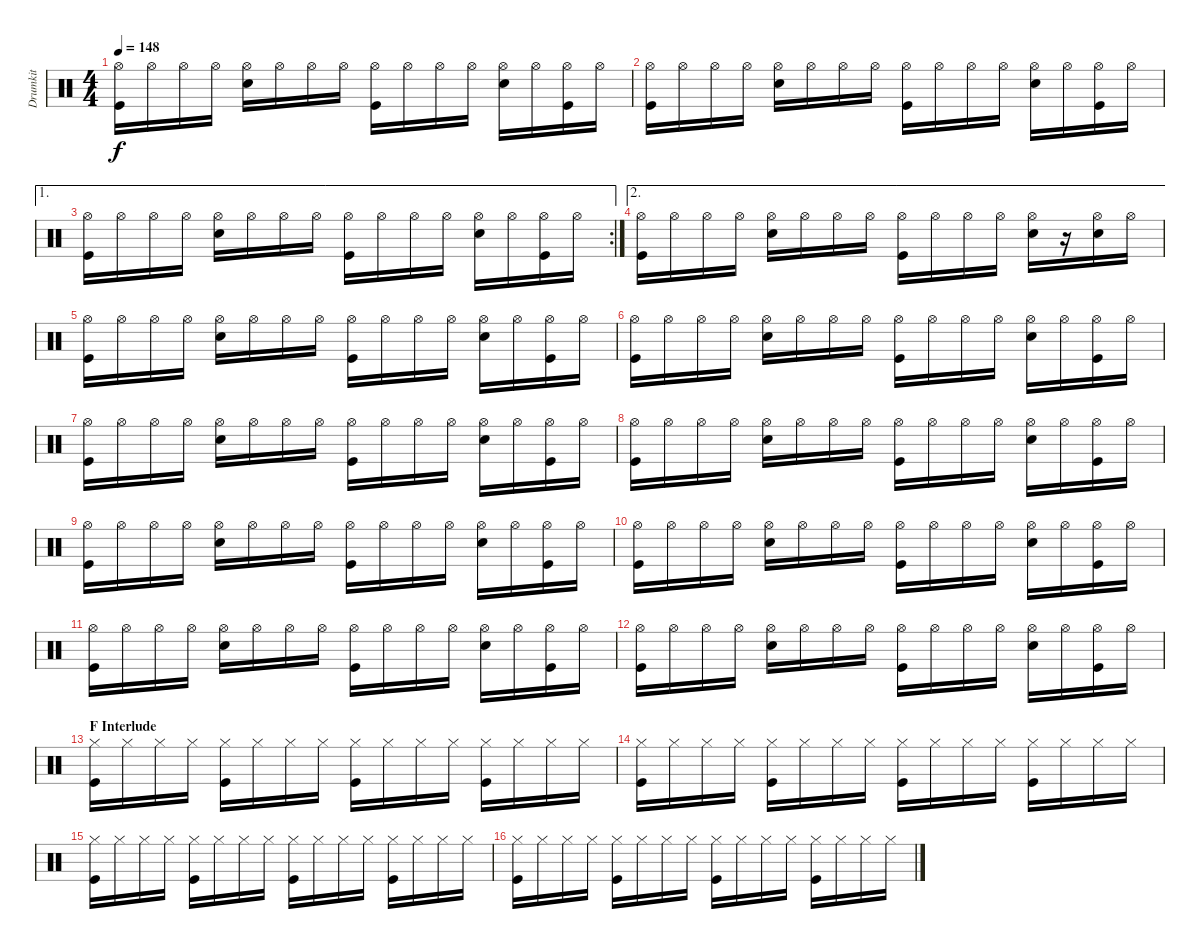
\track ("Drumkit" "Drumkit") {instrument percussion}
\staff {score}
\articulation defaults
\ts (4 4)
\tempo 148
\clef neutral
\ks c
("Hi-Hat (open)" "Kick (hit)").16{dy f} "Hi-Hat (open)".16 "Hi-Hat (open)".16 "Hi-Hat (open)".16 ("Hi-Hat (open)" "Snare (hit) 2").16 "Hi-Hat (open)".16 "Hi-Hat (open)".16 "Hi-Hat (open)".16 ("Hi-Hat (open)" "Kick (hit)").16 "Hi-Hat (open)".16 "Hi-Hat (open)".16 "Hi-Hat (open)".16 ("Hi-Hat (open)" "Snare (hit) 2").16 "Hi-Hat (open)".16 ("Hi-Hat (open)" "Kick (hit)").16 "Hi-Hat (open)".16 |
("Hi-Hat (open)" "Kick (hit)").16 "Hi-Hat (open)".16 "Hi-Hat (open)".16 "Hi-Hat (open)".16 ("Hi-Hat (open)" "Snare (hit) 2").16 "Hi-Hat (open)".16 "Hi-Hat (open)".16 "Hi-Hat (open)".16 ("Hi-Hat (open)" "Kick (hit)").16 "Hi-Hat (open)".16 "Hi-Hat (open)".16 "Hi-Hat (open)".16 ("Hi-Hat (open)" "Snare (hit) 2").16 "Hi-Hat (open)".16 ("Hi-Hat (open)" "Kick (hit)").16 "Hi-Hat (open)".16 |
\ae 1
\rc 2
("Hi-Hat (open)" "Kick (hit)").16 "Hi-Hat (open)".16 "Hi-Hat (open)".16 "Hi-Hat (open)".16 ("Hi-Hat (open)" "Snare (hit) 2").16 "Hi-Hat (open)".16 "Hi-Hat (open)".16 "Hi-Hat (open)".16 ("Hi-Hat (open)" "Kick (hit)").16 "Hi-Hat (open)".16 "Hi-Hat (open)".16 "Hi-Hat (open)".16 ("Hi-Hat (open)" "Snare (hit) 2").16 "Hi-Hat (open)".16 ("Hi-Hat (open)" "Kick (hit)").16 "Hi-Hat (open)".16 |
\ae 2
("Hi-Hat (open)" "Kick (hit)").16 "Hi-Hat (open)".16 "Hi-Hat (open)".16 "Hi-Hat (open)".16 ("Hi-Hat (open)" "Snare (hit) 2").16 "Hi-Hat (open)".16 "Hi-Hat (open)".16 "Hi-Hat (open)".16 ("Hi-Hat (open)" "Kick (hit)").16 "Hi-Hat (open)".16 "Hi-Hat (open)".16 "Hi-Hat (open)".16 ("Hi-Hat (open)" "Snare (hit) 2").16 r.16 ("Hi-Hat (open)" "Snare (hit) 2").16 "Hi-Hat (open)".16 |
("Hi-Hat (open)" "Kick (hit)").16 "Hi-Hat (open)".16 "Hi-Hat (open)".16 "Hi-Hat (open)".16 ("Hi-Hat (open)" "Snare (hit) 2").16 "Hi-Hat (open)".16 "Hi-Hat (open)".16 "Hi-Hat (open)".16 ("Hi-Hat (open)" "Kick (hit)").16 "Hi-Hat (open)".16 "Hi-Hat (open)".16 "Hi-Hat (open)".16 ("Hi-Hat (open)" "Snare (hit) 2").16 "Hi-Hat (open)".16 ("Hi-Hat (open)" "Kick (hit)").16 "Hi-Hat (open)".16 |
("Hi-Hat (open)" "Kick (hit)").16 "Hi-Hat (open)".16 "Hi-Hat (open)".16 "Hi-Hat (open)".16 ("Hi-Hat (open)" "Snare (hit) 2").16 "Hi-Hat (open)".16 "Hi-Hat (open)".16 "Hi-Hat (open)".16 ("Hi-Hat (open)" "Kick (hit)").16 "Hi-Hat (open)".16 "Hi-Hat (open)".16 "Hi-Hat (open)".16 ("Hi-Hat (open)" "Snare (hit) 2").16 "Hi-Hat (open)".16 ("Hi-Hat (open)" "Kick (hit)").16 "Hi-Hat (open)".16 |
("Hi-Hat (open)" "Kick (hit)").16 "Hi-Hat (open)".16 "Hi-Hat (open)".16 "Hi-Hat (open)".16 ("Hi-Hat (open)" "Snare (hit) 2").16 "Hi-Hat (open)".16 "Hi-Hat (open)".16 "Hi-Hat (open)".16 ("Hi-Hat (open)" "Kick (hit)").16 "Hi-Hat (open)".16 "Hi-Hat (open)".16 "Hi-Hat (open)".16 ("Hi-Hat (open)" "Snare (hit) 2").16 "Hi-Hat (open)".16 ("Hi-Hat (open)" "Kick (hit)").16 "Hi-Hat (open)".16 |
("Hi-Hat (open)" "Kick (hit)").16 "Hi-Hat (open)".16 "Hi-Hat (open)".16 "Hi-Hat (open)".16 ("Hi-Hat (open)" "Snare (hit) 2").16 "Hi-Hat (open)".16 "Hi-Hat (open)".16 "Hi-Hat (open)".16 ("Hi-Hat (open)" "Kick (hit)").16 "Hi-Hat (open)".16 "Hi-Hat (open)".16 "Hi-Hat (open)".16 ("Hi-Hat (open)" "Snare (hit) 2").16 "Hi-Hat (open)".16 ("Hi-Hat (open)" "Kick (hit)").16 "Hi-Hat (open)".16 |
("Hi-Hat (open)" "Kick (hit)").16 "Hi-Hat (open)".16 "Hi-Hat (open)".16 "Hi-Hat (open)".16 ("Hi-Hat (open)" "Snare (hit) 2").16 "Hi-Hat (open)".16 "Hi-Hat (open)".16 "Hi-Hat (open)".16 ("Hi-Hat (open)" "Kick (hit)").16 "Hi-Hat (open)".16 "Hi-Hat (open)".16 "Hi-Hat (open)".16 ("Hi-Hat (open)" "Snare (hit) 2").16 "Hi-Hat (open)".16 ("Hi-Hat (open)" "Kick (hit)").16 "Hi-Hat (open)".16 |
("Hi-Hat (open)" "Kick (hit)").16 "Hi-Hat (open)".16 "Hi-Hat (open)".16 "Hi-Hat (open)".16 ("Hi-Hat (open)" "Snare (hit) 2").16 "Hi-Hat (open)".16 "Hi-Hat (open)".16 "Hi-Hat (open)".16 ("Hi-Hat (open)" "Kick (hit)").16 "Hi-Hat (open)".16 "Hi-Hat (open)".16 "Hi-Hat (open)".16 ("Hi-Hat (open)" "Snare (hit) 2").16 "Hi-Hat (open)".16 ("Hi-Hat (open)" "Kick (hit)").16 "Hi-Hat (open)".16 |
("Hi-Hat (open)" "Kick (hit)").16 "Hi-Hat (open)".16 "Hi-Hat (open)".16 "Hi-Hat (open)".16 ("Hi-Hat (open)" "Snare (hit) 2").16 "Hi-Hat (open)".16 "Hi-Hat (open)".16 "Hi-Hat (open)".16 ("Hi-Hat (open)" "Kick (hit)").16 "Hi-Hat (open)".16 "Hi-Hat (open)".16 "Hi-Hat (open)".16 ("Hi-Hat (open)" "Snare (hit) 2").16 "Hi-Hat (open)".16 ("Hi-Hat (open)" "Kick (hit)").16 "Hi-Hat (open)".16 |
("Hi-Hat (open)" "Kick (hit)").16 "Hi-Hat (open)".16 "Hi-Hat (open)".16 "Hi-Hat (open)".16 ("Hi-Hat (open)" "Snare (hit) 2").16 "Hi-Hat (open)".16 "Hi-Hat (open)".16 "Hi-Hat (open)".16 ("Hi-Hat (open)" "Kick (hit)").16 "Hi-Hat (open)".16 "Hi-Hat (open)".16 "Hi-Hat (open)".16 ("Hi-Hat (open)" "Snare (hit) 2").16 "Hi-Hat (open)".16 ("Hi-Hat (open)" "Kick (hit)").16 "Hi-Hat (open)".16 |
\section ("" "F Interlude")
("Hi-Hat (closed)" "Kick (hit)").16 "Hi-Hat (closed)".16 "Hi-Hat (closed)".16 "Hi-Hat (closed)".16 ("Hi-Hat (closed)" "Kick (hit)").16 "Hi-Hat (closed)".16 "Hi-Hat (closed)".16 "Hi-Hat (closed)".16 ("Hi-Hat (closed)" "Kick (hit)").16 "Hi-Hat (closed)".16 "Hi-Hat (closed)".16 "Hi-Hat (closed)".16 ("Hi-Hat (closed)" "Kick (hit)").16 "Hi-Hat (closed)".16 "Hi-Hat (closed)".16 "Hi-Hat (closed)".16 |
("Hi-Hat (closed)" "Kick (hit)").16 "Hi-Hat (closed)".16 "Hi-Hat (closed)".16 "Hi-Hat (closed)".16 ("Hi-Hat (closed)" "Kick (hit)").16 "Hi-Hat (closed)".16 "Hi-Hat (closed)".16 "Hi-Hat (closed)".16 ("Hi-Hat (closed)" "Kick (hit)").16 "Hi-Hat (closed)".16 "Hi-Hat (closed)".16 "Hi-Hat (closed)".16 ("Hi-Hat (closed)" "Kick (hit)").16 "Hi-Hat (closed)".16 "Hi-Hat (closed)".16 "Hi-Hat (closed)".16 |
("Hi-Hat (closed)" "Kick (hit)").16 "Hi-Hat (closed)".16 "Hi-Hat (closed)".16 "Hi-Hat (closed)".16 ("Hi-Hat (closed)" "Kick (hit)").16 "Hi-Hat (closed)".16 "Hi-Hat (closed)".16 "Hi-Hat (closed)".16 ("Hi-Hat (closed)" "Kick (hit)").16 "Hi-Hat (closed)".16 "Hi-Hat (closed)".16 "Hi-Hat (closed)".16 ("Hi-Hat (closed)" "Kick (hit)").16 "Hi-Hat (closed)".16 "Hi-Hat (closed)".16 "Hi-Hat (closed)".16 |
("Hi-Hat (closed)" "Kick (hit)").16 "Hi-Hat (closed)".16 "Hi-Hat (closed)".16 "Hi-Hat (closed)".16 ("Hi-Hat (closed)" "Kick (hit)").16 "Hi-Hat (closed)".16 "Hi-Hat (closed)".16 "Hi-Hat (closed)".16 ("Hi-Hat (closed)" "Kick (hit)").16 "Hi-Hat (closed)".16 "Hi-Hat (closed)".16 "Hi-Hat (closed)".16 ("Hi-Hat (closed)" "Kick (hit)").16 "Hi-Hat (closed)".16 "Hi-Hat (closed)".16 "Hi-Hat (closed)".16
